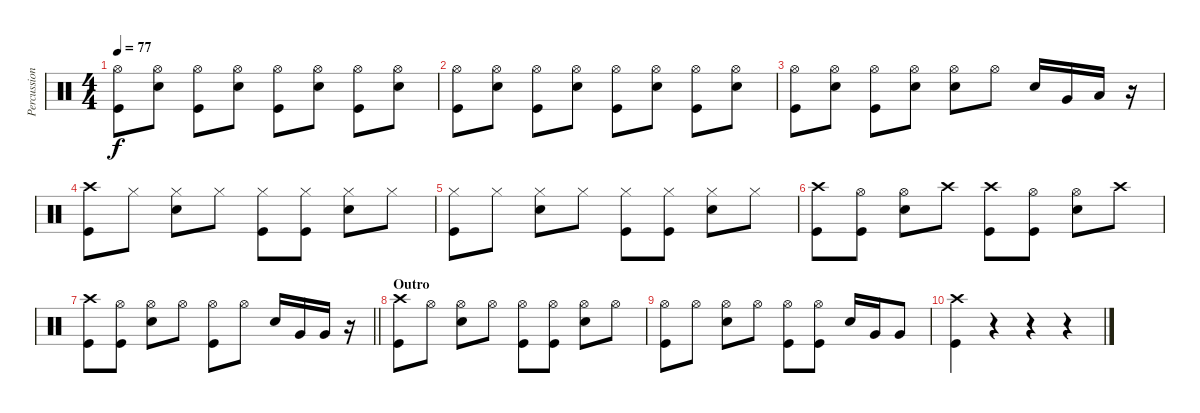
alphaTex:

\track ("Percussion" "Percussion") {instrument percussion}
\staff {score}
\articulation defaults
\ts (4 4)
\tempo 77
\clef neutral
\ks c
("Hi-Hat (open)" "Kick (hit)").8{dy f} ("Hi-Hat (open)" "Snare (hit) 2").8 ("Hi-Hat (open)" "Kick (hit)").8 ("Hi-Hat (open)" "Snare (hit) 2").8 ("Kick (hit)" "Hi-Hat (open)").8 ("Hi-Hat (open)" "Snare (hit) 2").8 ("Hi-Hat (open)" "Kick (hit)").8 ("Hi-Hat (open)" "Snare (hit) 2").8 |
("Hi-Hat (open)" "Kick (hit)").8 ("Hi-Hat (open)" "Snare (hit) 2").8 ("Hi-Hat (open)" "Kick (hit)").8 ("Hi-Hat (open)" "Snare (hit) 2").8 ("Kick (hit)" "Hi-Hat (open)").8 ("Hi-Hat (open)" "Snare (hit) 2").8 ("Hi-Hat (open)" "Kick (hit)").8 ("Hi-Hat (open)" "Snare (hit) 2").8 |
("Hi-Hat (open)" "Kick (hit)").8 ("Hi-Hat (open)" "Snare (hit) 2").8 ("Hi-Hat (open)" "Kick (hit)").8 ("Hi-Hat (open)" "Snare (hit) 2").8 ("Hi-Hat (open)" "Snare (hit) 2").8 "Hi-Hat (open)".8 "Snare (hit) 2".16 "Very Low Tom (hit)".16 "Low Floor Tom (hit)".16 r.16 |
("Crash high (hit)" "Kick (hit)").8 "Hi-Hat (closed)".8 ("Hi-Hat (closed)" "Snare (hit) 2").8 "Hi-Hat (closed)".8 ("Hi-Hat (closed)" "Kick (hit)").8 ("Hi-Hat (closed)" "Kick (hit)").8 ("Hi-Hat (closed)" "Snare (hit) 2").8 "Hi-Hat (closed)".8 |
("Hi-Hat (closed)" "Kick (hit)").8 "Hi-Hat (closed)".8 ("Hi-Hat (closed)" "Snare (hit) 2").8 "Hi-Hat (closed)".8 ("Hi-Hat (closed)" "Kick (hit)").8 ("Hi-Hat (closed)" "Kick (hit)").8 ("Hi-Hat (closed)" "Snare (hit) 2").8 "Hi-Hat (closed)".8 |
("Crash high (hit)" "Kick (hit)").8 ("Kick (hit)" "Hi-Hat (open)").8 ("Hi-Hat (open)" "Snare (hit) 2").8 "Crash high (hit)".8 ("Kick (hit)" "Crash high (hit)").8 ("Hi-Hat (open)" "Kick (hit)").8 ("Hi-Hat (open)" "Snare (hit) 2").8 "Crash high (hit)".8 |
\barLineRight lightlight
("Crash high (hit)" "Kick (hit)").8 ("Kick (hit)" "Hi-Hat (open)").8 ("Hi-Hat (open)" "Snare (hit) 2").8 "Hi-Hat (open)".8 ("Hi-Hat (open)" "Kick (hit)").8 "Hi-Hat (open)".8 "Snare (hit) 2".16 "Very Low Tom (hit)".16 "Very Low Tom (hit)".16 r.16 |
\section ("" "Outro")
("Crash high (hit)" "Kick (hit)").8 "Hi-Hat (open)".8 ("Snare (hit) 2" "Hi-Hat (open)").8 "Hi-Hat (open)".8 ("Kick (hit)" "Hi-Hat (open)").8 ("Kick (hit)" "Hi-Hat (open)").8 ("Snare (hit) 2" "Hi-Hat (open)").8 "Hi-Hat (open)".8 |
("Kick (hit)" "Hi-Hat (open)").8 "Hi-Hat (open)".8 ("Snare (hit) 2" "Hi-Hat (open)").8 "Hi-Hat (open)".8 ("Kick (hit)" "Hi-Hat (open)").8 ("Kick (hit)" "Hi-Hat (open)").8 "Snare (hit) 2".16 "Very Low Tom (hit)".16 "Very Low Tom (hit)".8 |
("Crash high (hit)" "Kick (hit)").4 r.4 r.4 r.4
